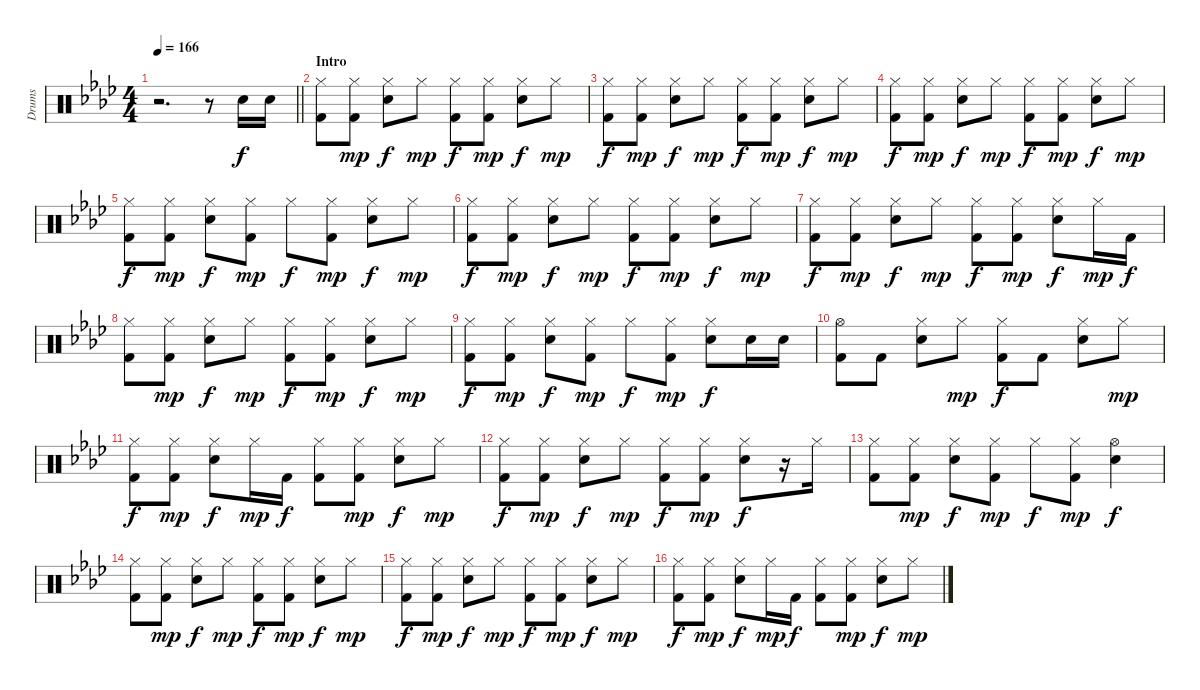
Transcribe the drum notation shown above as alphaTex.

\track ("Drums" "Drums") {instrument percussion}
\staff {score}
\articulation defaults
\ts (4 4)
\tempo 166
\clef neutral
\barLineRight lightlight
\ks ab
r.2{d dy f} r.8 "Electric Snare (hit)".16 "Electric Snare (hit)".16 |
\section ("" "Intro")
("Hi-Hat (closed)" "Kick (hit) 2").8 ("Hi-Hat (closed)" "Kick (hit) 2").8{dy mp} ("Hi-Hat (closed)" "Electric Snare (hit)").8{dy f} "Hi-Hat (closed)".8{dy mp} ("Hi-Hat (closed)" "Kick (hit) 2").8{dy f} ("Hi-Hat (closed)" "Kick (hit) 2").8{dy mp} ("Hi-Hat (closed)" "Electric Snare (hit)").8{dy f} "Hi-Hat (closed)".8{dy mp} |
("Hi-Hat (closed)" "Kick (hit) 2").8{dy f} ("Hi-Hat (closed)" "Kick (hit) 2").8{dy mp} ("Hi-Hat (closed)" "Electric Snare (hit)").8{dy f} "Hi-Hat (closed)".8{dy mp} ("Hi-Hat (closed)" "Kick (hit) 2").8{dy f} ("Hi-Hat (closed)" "Kick (hit) 2").8{dy mp} ("Hi-Hat (closed)" "Electric Snare (hit)").8{dy f} "Hi-Hat (closed)".8{dy mp} |
("Hi-Hat (closed)" "Kick (hit) 2").8{dy f} ("Hi-Hat (closed)" "Kick (hit) 2").8{dy mp} ("Hi-Hat (closed)" "Electric Snare (hit)").8{dy f} "Hi-Hat (closed)".8{dy mp} ("Hi-Hat (closed)" "Kick (hit) 2").8{dy f} ("Hi-Hat (closed)" "Kick (hit) 2").8{dy mp} ("Hi-Hat (closed)" "Electric Snare (hit)").8{dy f} "Hi-Hat (closed)".8{dy mp} |
("Hi-Hat (closed)" "Kick (hit) 2").8{dy f} ("Hi-Hat (closed)" "Kick (hit) 2").8{dy mp} ("Hi-Hat (closed)" "Electric Snare (hit)").8{dy f} ("Hi-Hat (closed)" "Kick (hit) 2").8{dy mp} "Hi-Hat (closed)".8{dy f} ("Hi-Hat (closed)" "Kick (hit) 2").8{dy mp} ("Hi-Hat (closed)" "Electric Snare (hit)").8{dy f} "Hi-Hat (closed)".8{dy mp} |
("Hi-Hat (closed)" "Kick (hit) 2").8{dy f} ("Hi-Hat (closed)" "Kick (hit) 2").8{dy mp} ("Hi-Hat (closed)" "Electric Snare (hit)").8{dy f} "Hi-Hat (closed)".8{dy mp} ("Hi-Hat (closed)" "Kick (hit) 2").8{dy f} ("Hi-Hat (closed)" "Kick (hit) 2").8{dy mp} ("Hi-Hat (closed)" "Electric Snare (hit)").8{dy f} "Hi-Hat (closed)".8{dy mp} |
("Hi-Hat (closed)" "Kick (hit) 2").8{dy f} ("Hi-Hat (closed)" "Kick (hit) 2").8{dy mp} ("Hi-Hat (closed)" "Electric Snare (hit)").8{dy f} "Hi-Hat (closed)".8{dy mp} ("Hi-Hat (closed)" "Kick (hit) 2").8{dy f} ("Hi-Hat (closed)" "Kick (hit) 2").8{dy mp} ("Hi-Hat (closed)" "Electric Snare (hit)").8{dy f} "Hi-Hat (closed)".16{dy mp} "Kick (hit) 2".16{dy f} |
("Hi-Hat (closed)" "Kick (hit) 2").8 ("Hi-Hat (closed)" "Kick (hit) 2").8{dy mp} ("Hi-Hat (closed)" "Electric Snare (hit)").8{dy f} "Hi-Hat (closed)".8{dy mp} ("Hi-Hat (closed)" "Kick (hit) 2").8{dy f} ("Hi-Hat (closed)" "Kick (hit) 2").8{dy mp} ("Hi-Hat (closed)" "Electric Snare (hit)").8{dy f} "Hi-Hat (closed)".8{dy mp} |
("Hi-Hat (closed)" "Kick (hit) 2").8{dy f} ("Hi-Hat (closed)" "Kick (hit) 2").8{dy mp} ("Hi-Hat (closed)" "Electric Snare (hit)").8{dy f} ("Hi-Hat (closed)" "Kick (hit) 2").8{dy mp} "Hi-Hat (closed)".8{dy f} ("Hi-Hat (closed)" "Kick (hit) 2").8{dy mp} ("Hi-Hat (closed)" "Electric Snare (hit)").8{dy f} "Electric Snare (hit)".16 "Electric Snare (hit)".16 |
("Hi-Hat (open)" "Kick (hit) 2").8 "Kick (hit) 2".8 ("Hi-Hat (closed)" "Electric Snare (hit)").8 "Hi-Hat (closed)".8{dy mp} ("Hi-Hat (closed)" "Kick (hit) 2").8{dy f} "Kick (hit) 2".8 ("Hi-Hat (closed)" "Electric Snare (hit)").8 "Hi-Hat (closed)".8{dy mp} |
("Hi-Hat (closed)" "Kick (hit) 2").8{dy f} ("Hi-Hat (closed)" "Kick (hit) 2").8{dy mp} ("Hi-Hat (closed)" "Electric Snare (hit)").8{dy f} "Hi-Hat (closed)".16{dy mp} "Kick (hit) 2".16{dy f} ("Hi-Hat (closed)" "Kick (hit) 2").8 ("Hi-Hat (closed)" "Kick (hit) 2").8{dy mp} ("Hi-Hat (closed)" "Electric Snare (hit)").8{dy f} "Hi-Hat (closed)".8{dy mp} |
("Hi-Hat (closed)" "Kick (hit) 2").8{dy f} ("Hi-Hat (closed)" "Kick (hit) 2").8{dy mp} ("Hi-Hat (closed)" "Electric Snare (hit)").8{dy f} "Hi-Hat (closed)".8{dy mp} ("Hi-Hat (closed)" "Kick (hit) 2").8{dy f} ("Hi-Hat (closed)" "Kick (hit) 2").8{dy mp} ("Hi-Hat (closed)" "Electric Snare (hit)").8{dy f} r.16 "Hi-Hat (closed)".16 |
("Hi-Hat (closed)" "Kick (hit) 2").8 ("Hi-Hat (closed)" "Kick (hit) 2").8{dy mp} ("Hi-Hat (closed)" "Electric Snare (hit)").8{dy f} ("Hi-Hat (closed)" "Kick (hit) 2").8{dy mp} "Hi-Hat (closed)".8{dy f} ("Hi-Hat (closed)" "Kick (hit) 2").8{dy mp} ("Hi-Hat (open)" "Electric Snare (hit)").4{dy f} |
("Hi-Hat (closed)" "Kick (hit) 2").8 ("Hi-Hat (closed)" "Kick (hit) 2").8{dy mp} ("Hi-Hat (closed)" "Electric Snare (hit)").8{dy f} "Hi-Hat (closed)".8{dy mp} ("Hi-Hat (closed)" "Kick (hit) 2").8{dy f} ("Hi-Hat (closed)" "Kick (hit) 2").8{dy mp} ("Hi-Hat (closed)" "Electric Snare (hit)").8{dy f} "Hi-Hat (closed)".8{dy mp} |
("Hi-Hat (closed)" "Kick (hit) 2").8{dy f} ("Hi-Hat (closed)" "Kick (hit) 2").8{dy mp} ("Hi-Hat (closed)" "Electric Snare (hit)").8{dy f} "Hi-Hat (closed)".8{dy mp} ("Hi-Hat (closed)" "Kick (hit) 2").8{dy f} ("Hi-Hat (closed)" "Kick (hit) 2").8{dy mp} ("Hi-Hat (closed)" "Electric Snare (hit)").8{dy f} "Hi-Hat (closed)".8{dy mp} |
("Hi-Hat (closed)" "Kick (hit) 2").8{dy f} ("Hi-Hat (closed)" "Kick (hit) 2").8{dy mp} ("Hi-Hat (closed)" "Electric Snare (hit)").8{dy f} "Hi-Hat (closed)".16{dy mp} "Kick (hit) 2".16{dy f} ("Hi-Hat (closed)" "Kick (hit) 2").8 ("Hi-Hat (closed)" "Kick (hit) 2").8{dy mp} ("Hi-Hat (closed)" "Electric Snare (hit)").8{dy f} "Hi-Hat (closed)".8{dy mp}
